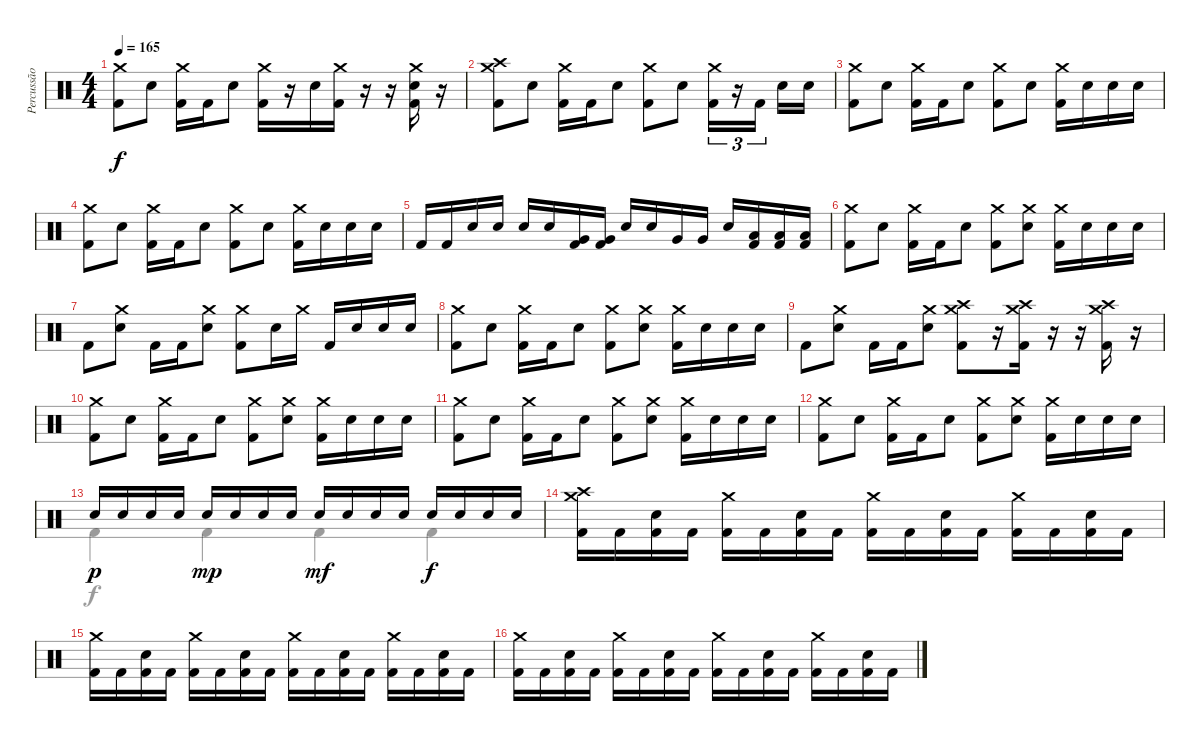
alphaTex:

\track ("Percussão" "Percussão") {instrument percussion}
\staff {score}
\articulation defaults
\voice
\ts (4 4)
\tempo 165
\clef neutral
\ks c
("Crash medium (hit)" "Kick (hit) 2").8{dy f} "Electric Snare (hit)".8 ("Crash medium (hit)" "Kick (hit) 2").16 "Kick (hit) 2".16 "Electric Snare (hit)".8 ("Crash medium (hit)" "Kick (hit) 2").16 r.16 "Electric Snare (hit)".16 ("Crash medium (hit)" "Kick (hit) 2").16 r.16 r.16 ("Crash medium (hit)" "Electric Snare (hit)" "Kick (hit) 2").16 r.16 |
("Crash high (hit)" "Crash medium (hit)" "Kick (hit) 2").8 "Electric Snare (hit)".8 ("Crash medium (hit)" "Kick (hit) 2").16 "Kick (hit) 2".16 "Electric Snare (hit)".8 ("Crash medium (hit)" "Kick (hit) 2").8 "Electric Snare (hit)".8 ("Crash medium (hit)" "Kick (hit) 2").16{tu (3 2)} r.16{tu (3 2)} "Kick (hit) 2".16{tu (3 2) beam splitsecondary} "Electric Snare (hit)".16 "Electric Snare (hit)".16 |
("Crash medium (hit)" "Kick (hit) 2").8 "Electric Snare (hit)".8 ("Crash medium (hit)" "Kick (hit) 2").16 "Kick (hit) 2".16 "Electric Snare (hit)".8 ("Crash medium (hit)" "Kick (hit) 2").8 "Electric Snare (hit)".8 ("Crash medium (hit)" "Kick (hit) 2").16 "Electric Snare (hit)".16 "Electric Snare (hit)".16 "Electric Snare (hit)".16 |
("Crash medium (hit)" "Kick (hit) 2").8 "Electric Snare (hit)".8 ("Crash medium (hit)" "Kick (hit) 2").16 "Kick (hit) 2".16 "Electric Snare (hit)".8 ("Crash medium (hit)" "Kick (hit) 2").8 "Electric Snare (hit)".8 ("Crash medium (hit)" "Kick (hit) 2").16 "Electric Snare (hit)".16 "Electric Snare (hit)".16 "Electric Snare (hit)".16 |
"Kick (hit) 2".16 "Kick (hit) 2".16 "Electric Snare (hit)".16 "Electric Snare (hit)".16 "Electric Snare (hit)".16 "Electric Snare (hit)".16 ("Very Low Tom (hit)" "Kick (hit) 2").16 ("Very Low Tom (hit)" "Kick (hit) 2").16 "Electric Snare (hit)".16 "Electric Snare (hit)".16 "Very Low Tom (hit)".16 "Very Low Tom (hit)".16 "Electric Snare (hit)".16 ("Low Floor Tom (hit)" "Kick (hit) 2").16 ("Low Floor Tom (hit)" "Kick (hit) 2").16 ("Low Floor Tom (hit)" "Kick (hit) 2").16 |
("Crash medium (hit)" "Kick (hit) 2").8 "Electric Snare (hit)".8 ("Crash medium (hit)" "Kick (hit) 2").16 "Kick (hit) 2".16 "Electric Snare (hit)".8 ("Crash medium (hit)" "Kick (hit) 2").8 ("Crash medium (hit)" "Electric Snare (hit)").8 ("Crash medium (hit)" "Kick (hit) 2").16 "Electric Snare (hit)".16 "Electric Snare (hit)".16 "Electric Snare (hit)".16 |
"Kick (hit) 2".8 ("Crash medium (hit)" "Electric Snare (hit)").8 "Kick (hit) 2".16 "Kick (hit) 2".16 ("Crash medium (hit)" "Electric Snare (hit)").8 ("Crash medium (hit)" "Kick (hit) 2").8 "Electric Snare (hit)".16 "Crash medium (hit)".16 "Kick (hit) 2".16 "Electric Snare (hit)".16 "Electric Snare (hit)".16 "Electric Snare (hit)".16 |
("Crash medium (hit)" "Kick (hit) 2").8 "Electric Snare (hit)".8 ("Crash medium (hit)" "Kick (hit) 2").16 "Kick (hit) 2".16 "Electric Snare (hit)".8 ("Crash medium (hit)" "Kick (hit) 2").8 ("Crash medium (hit)" "Electric Snare (hit)").8 ("Crash medium (hit)" "Kick (hit) 2").16 "Electric Snare (hit)".16 "Electric Snare (hit)".16 "Electric Snare (hit)".16 |
"Kick (hit) 2".8 ("Crash medium (hit)" "Electric Snare (hit)").8 "Kick (hit) 2".16 "Kick (hit) 2".16 ("Crash medium (hit)" "Electric Snare (hit)").8 ("Crash medium (hit)" "Crash high (hit)" "Kick (hit) 2").8 r.16 ("Crash medium (hit)" "Crash high (hit)" "Kick (hit) 2").16 r.16 r.16 ("Crash medium (hit)" "Crash high (hit)" "Kick (hit) 2").16 r.16 |
("Crash medium (hit)" "Kick (hit) 2").8 "Electric Snare (hit)".8 ("Crash medium (hit)" "Kick (hit) 2").16 "Kick (hit) 2".16 "Electric Snare (hit)".8 ("Crash medium (hit)" "Kick (hit) 2").8 ("Crash medium (hit)" "Electric Snare (hit)").8 ("Crash medium (hit)" "Kick (hit) 2").16 "Electric Snare (hit)".16 "Electric Snare (hit)".16 "Electric Snare (hit)".16 |
("Crash medium (hit)" "Kick (hit) 2").8 "Electric Snare (hit)".8 ("Crash medium (hit)" "Kick (hit) 2").16 "Kick (hit) 2".16 "Electric Snare (hit)".8 ("Crash medium (hit)" "Kick (hit) 2").8 ("Crash medium (hit)" "Electric Snare (hit)").8 ("Crash medium (hit)" "Kick (hit) 2").16 "Electric Snare (hit)".16 "Electric Snare (hit)".16 "Electric Snare (hit)".16 |
("Crash medium (hit)" "Kick (hit) 2").8 "Electric Snare (hit)".8 ("Crash medium (hit)" "Kick (hit) 2").16 "Kick (hit) 2".16 "Electric Snare (hit)".8 ("Crash medium (hit)" "Kick (hit) 2").8 ("Crash medium (hit)" "Electric Snare (hit)").8 ("Crash medium (hit)" "Kick (hit) 2").16 "Electric Snare (hit)".16 "Electric Snare (hit)".16 "Electric Snare (hit)".16 |
"Electric Snare (hit)".16{dy p} "Electric Snare (hit)".16 "Electric Snare (hit)".16 "Electric Snare (hit)".16 "Electric Snare (hit)".16{dy mp} "Electric Snare (hit)".16 "Electric Snare (hit)".16 "Electric Snare (hit)".16 "Electric Snare (hit)".16{dy mf} "Electric Snare (hit)".16 "Electric Snare (hit)".16 "Electric Snare (hit)".16 "Electric Snare (hit)".16{dy f} "Electric Snare (hit)".16 "Electric Snare (hit)".16 "Electric Snare (hit)".16 |
("Crash medium (hit)" "Crash high (hit)" "Kick (hit) 2").16 "Kick (hit) 2".16 ("Electric Snare (hit)" "Kick (hit) 2").16 "Kick (hit) 2".16 ("Crash medium (hit)" "Kick (hit) 2").16 "Kick (hit) 2".16 ("Electric Snare (hit)" "Kick (hit) 2").16 "Kick (hit) 2".16 ("Crash medium (hit)" "Kick (hit) 2").16 "Kick (hit) 2".16 ("Electric Snare (hit)" "Kick (hit) 2").16 "Kick (hit) 2".16 ("Crash medium (hit)" "Kick (hit) 2").16 "Kick (hit) 2".16 ("Electric Snare (hit)" "Kick (hit) 2").16 "Kick (hit) 2".16 |
("Crash medium (hit)" "Kick (hit) 2").16 "Kick (hit) 2".16 ("Electric Snare (hit)" "Kick (hit) 2").16 "Kick (hit) 2".16 ("Crash medium (hit)" "Kick (hit) 2").16 "Kick (hit) 2".16 ("Electric Snare (hit)" "Kick (hit) 2").16 "Kick (hit) 2".16 ("Crash medium (hit)" "Kick (hit) 2").16 "Kick (hit) 2".16 ("Electric Snare (hit)" "Kick (hit) 2").16 "Kick (hit) 2".16 ("Crash medium (hit)" "Kick (hit) 2").16 "Kick (hit) 2".16 ("Electric Snare (hit)" "Kick (hit) 2").16 "Kick (hit) 2".16 |
("Crash medium (hit)" "Kick (hit) 2").16 "Kick (hit) 2".16 ("Electric Snare (hit)" "Kick (hit) 2").16 "Kick (hit) 2".16 ("Crash medium (hit)" "Kick (hit) 2").16 "Kick (hit) 2".16 ("Electric Snare (hit)" "Kick (hit) 2").16 "Kick (hit) 2".16 ("Crash medium (hit)" "Kick (hit) 2").16 "Kick (hit) 2".16 ("Electric Snare (hit)" "Kick (hit) 2").16 "Kick (hit) 2".16 ("Crash medium (hit)" "Kick (hit) 2").16 "Kick (hit) 2".16 ("Electric Snare (hit)" "Kick (hit) 2").16 "Kick (hit) 2".16
\voice
\clef neutral
\ottava regular
\simile none
\ks c
|
|
|
|
|
|
|
|
|
|
|
|
"Kick (hit) 2".4 "Kick (hit) 2".4 "Kick (hit) 2".4 "Kick (hit) 2".4 |
|
|
